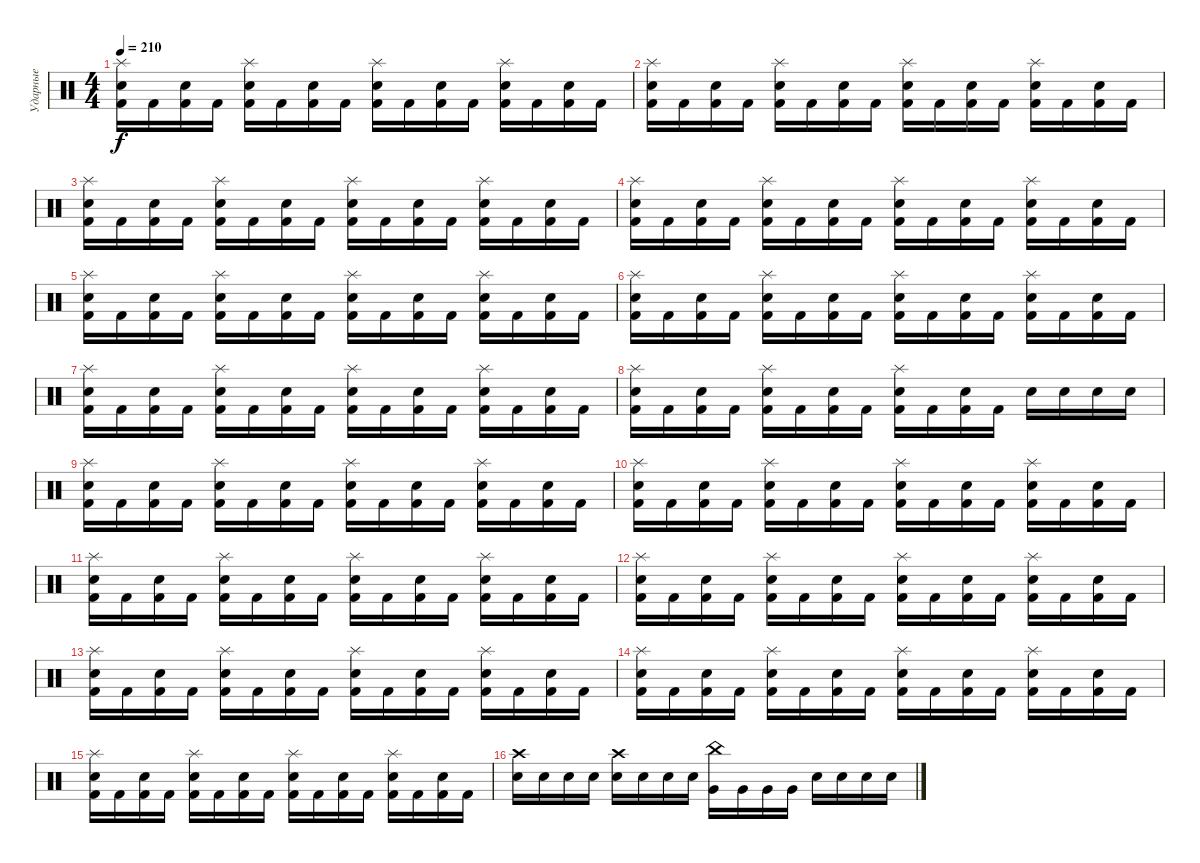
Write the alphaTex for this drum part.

\track ("Ударные" "Ударные") {instrument percussion}
\staff {score}
\articulation defaults
\ts (4 4)
\tempo 210
\clef neutral
\ks c
("Kick (hit) 2" "Electric Snare (hit)" "Splash (hit)").16{dy f} "Kick (hit) 2".16 ("Kick (hit) 2" "Electric Snare (hit)").16 "Kick (hit) 2".16 ("Kick (hit) 2" "Electric Snare (hit)" "Splash (hit)").16 "Kick (hit) 2".16 ("Kick (hit) 2" "Electric Snare (hit)").16 "Kick (hit) 2".16 ("Kick (hit) 2" "Electric Snare (hit)" "Splash (hit)").16 "Kick (hit) 2".16 ("Kick (hit) 2" "Electric Snare (hit)").16 "Kick (hit) 2".16 ("Kick (hit) 2" "Electric Snare (hit)" "Splash (hit)").16 "Kick (hit) 2".16 ("Kick (hit) 2" "Electric Snare (hit)").16 "Kick (hit) 2".16 |
("Kick (hit) 2" "Electric Snare (hit)" "Splash (hit)").16 "Kick (hit) 2".16 ("Kick (hit) 2" "Electric Snare (hit)").16 "Kick (hit) 2".16 ("Kick (hit) 2" "Electric Snare (hit)" "Splash (hit)").16 "Kick (hit) 2".16 ("Kick (hit) 2" "Electric Snare (hit)").16 "Kick (hit) 2".16 ("Kick (hit) 2" "Electric Snare (hit)" "Splash (hit)").16 "Kick (hit) 2".16 ("Kick (hit) 2" "Electric Snare (hit)").16 "Kick (hit) 2".16 ("Kick (hit) 2" "Electric Snare (hit)" "Splash (hit)").16 "Kick (hit) 2".16 ("Kick (hit) 2" "Electric Snare (hit)").16 "Kick (hit) 2".16 |
("Kick (hit) 2" "Electric Snare (hit)" "Splash (hit)").16 "Kick (hit) 2".16 ("Kick (hit) 2" "Electric Snare (hit)").16 "Kick (hit) 2".16 ("Kick (hit) 2" "Electric Snare (hit)" "Splash (hit)").16 "Kick (hit) 2".16 ("Kick (hit) 2" "Electric Snare (hit)").16 "Kick (hit) 2".16 ("Kick (hit) 2" "Electric Snare (hit)" "Splash (hit)").16 "Kick (hit) 2".16 ("Kick (hit) 2" "Electric Snare (hit)").16 "Kick (hit) 2".16 ("Kick (hit) 2" "Electric Snare (hit)" "Splash (hit)").16 "Kick (hit) 2".16 ("Kick (hit) 2" "Electric Snare (hit)").16 "Kick (hit) 2".16 |
("Kick (hit) 2" "Electric Snare (hit)" "Splash (hit)").16 "Kick (hit) 2".16 ("Kick (hit) 2" "Electric Snare (hit)").16 "Kick (hit) 2".16 ("Kick (hit) 2" "Electric Snare (hit)" "Splash (hit)").16 "Kick (hit) 2".16 ("Kick (hit) 2" "Electric Snare (hit)").16 "Kick (hit) 2".16 ("Kick (hit) 2" "Electric Snare (hit)" "Splash (hit)").16 "Kick (hit) 2".16 ("Kick (hit) 2" "Electric Snare (hit)").16 "Kick (hit) 2".16 ("Kick (hit) 2" "Electric Snare (hit)" "Splash (hit)").16 "Kick (hit) 2".16 ("Kick (hit) 2" "Electric Snare (hit)").16 "Kick (hit) 2".16 |
("Kick (hit) 2" "Electric Snare (hit)" "Splash (hit)").16 "Kick (hit) 2".16 ("Kick (hit) 2" "Electric Snare (hit)").16 "Kick (hit) 2".16 ("Kick (hit) 2" "Electric Snare (hit)" "Splash (hit)").16 "Kick (hit) 2".16 ("Kick (hit) 2" "Electric Snare (hit)").16 "Kick (hit) 2".16 ("Kick (hit) 2" "Electric Snare (hit)" "Splash (hit)").16 "Kick (hit) 2".16 ("Kick (hit) 2" "Electric Snare (hit)").16 "Kick (hit) 2".16 ("Kick (hit) 2" "Electric Snare (hit)" "Splash (hit)").16 "Kick (hit) 2".16 ("Kick (hit) 2" "Electric Snare (hit)").16 "Kick (hit) 2".16 |
("Kick (hit) 2" "Electric Snare (hit)" "Splash (hit)").16 "Kick (hit) 2".16 ("Kick (hit) 2" "Electric Snare (hit)").16 "Kick (hit) 2".16 ("Kick (hit) 2" "Electric Snare (hit)" "Splash (hit)").16 "Kick (hit) 2".16 ("Kick (hit) 2" "Electric Snare (hit)").16 "Kick (hit) 2".16 ("Kick (hit) 2" "Electric Snare (hit)" "Splash (hit)").16 "Kick (hit) 2".16 ("Kick (hit) 2" "Electric Snare (hit)").16 "Kick (hit) 2".16 ("Kick (hit) 2" "Electric Snare (hit)" "Splash (hit)").16 "Kick (hit) 2".16 ("Kick (hit) 2" "Electric Snare (hit)").16 "Kick (hit) 2".16 |
("Kick (hit) 2" "Electric Snare (hit)" "Splash (hit)").16 "Kick (hit) 2".16 ("Kick (hit) 2" "Electric Snare (hit)").16 "Kick (hit) 2".16 ("Kick (hit) 2" "Electric Snare (hit)" "Splash (hit)").16 "Kick (hit) 2".16 ("Kick (hit) 2" "Electric Snare (hit)").16 "Kick (hit) 2".16 ("Kick (hit) 2" "Electric Snare (hit)" "Splash (hit)").16 "Kick (hit) 2".16 ("Kick (hit) 2" "Electric Snare (hit)").16 "Kick (hit) 2".16 ("Kick (hit) 2" "Electric Snare (hit)" "Splash (hit)").16 "Kick (hit) 2".16 ("Kick (hit) 2" "Electric Snare (hit)").16 "Kick (hit) 2".16 |
("Kick (hit) 2" "Electric Snare (hit)" "Splash (hit)").16 "Kick (hit) 2".16 ("Kick (hit) 2" "Electric Snare (hit)").16 "Kick (hit) 2".16 ("Kick (hit) 2" "Electric Snare (hit)" "Splash (hit)").16 "Kick (hit) 2".16 ("Kick (hit) 2" "Electric Snare (hit)").16 "Kick (hit) 2".16 ("Kick (hit) 2" "Electric Snare (hit)" "Splash (hit)").16 "Kick (hit) 2".16 ("Kick (hit) 2" "Electric Snare (hit)").16 "Kick (hit) 2".16 "Electric Snare (hit)".16 "Electric Snare (hit)".16 "Electric Snare (hit)".16 "Electric Snare (hit)".16 |
("Kick (hit) 2" "Electric Snare (hit)" "Splash (hit)").16 "Kick (hit) 2".16 ("Kick (hit) 2" "Electric Snare (hit)").16 "Kick (hit) 2".16 ("Kick (hit) 2" "Electric Snare (hit)" "Splash (hit)").16 "Kick (hit) 2".16 ("Kick (hit) 2" "Electric Snare (hit)").16 "Kick (hit) 2".16 ("Kick (hit) 2" "Electric Snare (hit)" "Splash (hit)").16 "Kick (hit) 2".16 ("Kick (hit) 2" "Electric Snare (hit)").16 "Kick (hit) 2".16 ("Kick (hit) 2" "Electric Snare (hit)" "Splash (hit)").16 "Kick (hit) 2".16 ("Kick (hit) 2" "Electric Snare (hit)").16 "Kick (hit) 2".16 |
("Kick (hit) 2" "Electric Snare (hit)" "Splash (hit)").16 "Kick (hit) 2".16 ("Kick (hit) 2" "Electric Snare (hit)").16 "Kick (hit) 2".16 ("Kick (hit) 2" "Electric Snare (hit)" "Splash (hit)").16 "Kick (hit) 2".16 ("Kick (hit) 2" "Electric Snare (hit)").16 "Kick (hit) 2".16 ("Kick (hit) 2" "Electric Snare (hit)" "Splash (hit)").16 "Kick (hit) 2".16 ("Kick (hit) 2" "Electric Snare (hit)").16 "Kick (hit) 2".16 ("Kick (hit) 2" "Electric Snare (hit)" "Splash (hit)").16 "Kick (hit) 2".16 ("Kick (hit) 2" "Electric Snare (hit)").16 "Kick (hit) 2".16 |
("Kick (hit) 2" "Electric Snare (hit)" "Splash (hit)").16 "Kick (hit) 2".16 ("Kick (hit) 2" "Electric Snare (hit)").16 "Kick (hit) 2".16 ("Kick (hit) 2" "Electric Snare (hit)" "Splash (hit)").16 "Kick (hit) 2".16 ("Kick (hit) 2" "Electric Snare (hit)").16 "Kick (hit) 2".16 ("Kick (hit) 2" "Electric Snare (hit)" "Splash (hit)").16 "Kick (hit) 2".16 ("Kick (hit) 2" "Electric Snare (hit)").16 "Kick (hit) 2".16 ("Kick (hit) 2" "Electric Snare (hit)" "Splash (hit)").16 "Kick (hit) 2".16 ("Kick (hit) 2" "Electric Snare (hit)").16 "Kick (hit) 2".16 |
("Kick (hit) 2" "Electric Snare (hit)" "Splash (hit)").16 "Kick (hit) 2".16 ("Kick (hit) 2" "Electric Snare (hit)").16 "Kick (hit) 2".16 ("Kick (hit) 2" "Electric Snare (hit)" "Splash (hit)").16 "Kick (hit) 2".16 ("Kick (hit) 2" "Electric Snare (hit)").16 "Kick (hit) 2".16 ("Kick (hit) 2" "Electric Snare (hit)" "Splash (hit)").16 "Kick (hit) 2".16 ("Kick (hit) 2" "Electric Snare (hit)").16 "Kick (hit) 2".16 ("Kick (hit) 2" "Electric Snare (hit)" "Splash (hit)").16 "Kick (hit) 2".16 ("Kick (hit) 2" "Electric Snare (hit)").16 "Kick (hit) 2".16 |
("Kick (hit) 2" "Electric Snare (hit)" "Splash (hit)").16 "Kick (hit) 2".16 ("Kick (hit) 2" "Electric Snare (hit)").16 "Kick (hit) 2".16 ("Kick (hit) 2" "Electric Snare (hit)" "Splash (hit)").16 "Kick (hit) 2".16 ("Kick (hit) 2" "Electric Snare (hit)").16 "Kick (hit) 2".16 ("Kick (hit) 2" "Electric Snare (hit)" "Splash (hit)").16 "Kick (hit) 2".16 ("Kick (hit) 2" "Electric Snare (hit)").16 "Kick (hit) 2".16 ("Kick (hit) 2" "Electric Snare (hit)" "Splash (hit)").16 "Kick (hit) 2".16 ("Kick (hit) 2" "Electric Snare (hit)").16 "Kick (hit) 2".16 |
("Kick (hit) 2" "Electric Snare (hit)" "Splash (hit)").16 "Kick (hit) 2".16 ("Kick (hit) 2" "Electric Snare (hit)").16 "Kick (hit) 2".16 ("Kick (hit) 2" "Electric Snare (hit)" "Splash (hit)").16 "Kick (hit) 2".16 ("Kick (hit) 2" "Electric Snare (hit)").16 "Kick (hit) 2".16 ("Kick (hit) 2" "Electric Snare (hit)" "Splash (hit)").16 "Kick (hit) 2".16 ("Kick (hit) 2" "Electric Snare (hit)").16 "Kick (hit) 2".16 ("Kick (hit) 2" "Electric Snare (hit)" "Splash (hit)").16 "Kick (hit) 2".16 ("Kick (hit) 2" "Electric Snare (hit)").16 "Kick (hit) 2".16 |
("Kick (hit) 2" "Electric Snare (hit)" "Splash (hit)").16 "Kick (hit) 2".16 ("Kick (hit) 2" "Electric Snare (hit)").16 "Kick (hit) 2".16 ("Kick (hit) 2" "Electric Snare (hit)" "Splash (hit)").16 "Kick (hit) 2".16 ("Kick (hit) 2" "Electric Snare (hit)").16 "Kick (hit) 2".16 ("Kick (hit) 2" "Electric Snare (hit)" "Splash (hit)").16 "Kick (hit) 2".16 ("Kick (hit) 2" "Electric Snare (hit)").16 "Kick (hit) 2".16 ("Kick (hit) 2" "Electric Snare (hit)" "Splash (hit)").16 "Kick (hit) 2".16 ("Kick (hit) 2" "Electric Snare (hit)").16 "Kick (hit) 2".16 |
("Electric Snare (hit)" "Crash high (hit)").16 "Electric Snare (hit)".16 "Electric Snare (hit)".16 "Electric Snare (hit)".16 ("Snare (hit) 2" "Crash high (hit)").16 "Snare (hit) 2".16 "Snare (hit) 2".16 "Snare (hit) 2".16 ("Very Low Tom (hit)" "China (hit)").16 "Very Low Tom (hit)".16 "Very Low Tom (hit)".16 "Very Low Tom (hit)".16 "Snare (hit) 2".16 "Snare (hit) 2".16 "Snare (hit) 2".16 "Snare (hit) 2".16
